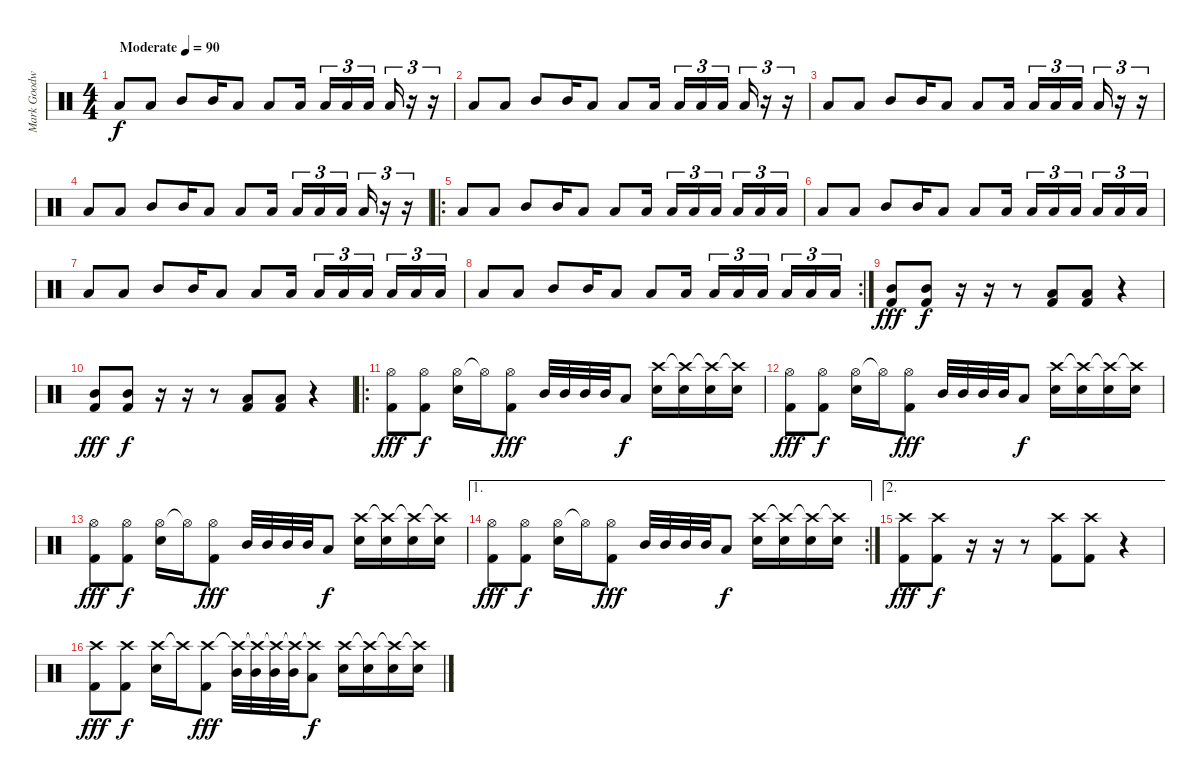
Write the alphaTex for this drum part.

\track ("Mark Goodwin" "Mark Goodw") {instrument percussion}
\staff {score}
\articulation defaults
\ts (4 4)
\tempo (90 "Moderate")
\clef neutral
\ks c "Low Floor Tom (hit)".8{dy f} "Low Floor Tom (hit)".8 "Mid Tom (hit)".8 "Mid Tom (hit)".16 "Low Floor Tom (hit)".8 "Low Floor Tom (hit)".8 "Low Tom (hit)".16 "Low Tom (hit)".16{tu (3 2)} "Low Tom (hit)".16{tu (3 2)} "Low Tom (hit)".16{tu (3 2) beam splitsecondary} "Low Tom (hit)".16{tu (3 2)}
r.16{tu (3 2)} r.16{tu (3 2)} |
"Low Floor Tom (hit)".8 "Low Floor Tom (hit)".8 "Mid Tom (hit)".8 "Mid Tom (hit)".16 "Low Floor Tom (hit)".8 "Low Floor Tom (hit)".8 "Low Tom (hit)".16 "Low Tom (hit)".16{tu (3 2)} "Low Tom (hit)".16{tu (3 2)} "Low Tom (hit)".16{tu (3 2) beam splitsecondary} "Low Tom (hit)".16{tu (3 2)} r.16{tu (3 2)} r.16{tu (3 2)} |
"Low Floor Tom (hit)".8 "Low Floor Tom (hit)".8 "Mid Tom (hit)".8 "Mid Tom (hit)".16 "Low Floor Tom (hit)".8 "Low Floor Tom (hit)".8 "Low Tom (hit)".16 "Low Tom (hit)".16{tu (3 2)} "Low Tom (hit)".16{tu (3 2)} "Low Tom (hit)".16{tu (3 2) beam splitsecondary} "Low Tom (hit)".16{tu (3 2)} r.16{tu (3 2)} r.16{tu (3 2)} |
"Low Floor Tom (hit)".8 "Low Floor Tom (hit)".8 "Mid Tom (hit)".8 "Mid Tom (hit)".16 "Low Floor Tom (hit)".8 "Low Floor Tom (hit)".8 "Low Tom (hit)".16 "Low Tom (hit)".16{tu (3 2)} "Low Tom (hit)".16{tu (3 2)} "Low Tom (hit)".16{tu (3 2) beam splitsecondary} "Low Tom (hit)".16{tu (3 2)} r.16{tu (3 2)} r.16{tu (3 2)} |
\ro "Low Floor Tom (hit)".8 "Low Floor Tom (hit)".8 "Mid Tom (hit)".8 "Mid Tom (hit)".16 "Low Floor Tom (hit)".8 "Low Floor Tom (hit)".8 "Low Tom (hit)".16 "Low Tom (hit)".16{tu (3 2)} "Low Tom (hit)".16{tu (3 2)} "Low Tom (hit)".16{tu (3 2) beam splitsecondary} "Low Tom (hit)".16{tu (3 2)} "Low Tom (hit)".16{tu (3 2)} "Low Tom (hit)".16{tu (3 2)}
|
"Low Floor Tom (hit)".8 "Low Floor Tom (hit)".8 "Mid Tom (hit)".8 "Mid Tom (hit)".16 "Low Floor Tom (hit)".8 "Low Floor Tom (hit)".8 "Low Tom (hit)".16 "Low Tom (hit)".16{tu (3 2)} "Low Tom (hit)".16{tu (3 2)} "Low Tom (hit)".16{tu (3 2) beam splitsecondary} "Low Tom (hit)".16{tu (3 2)} "Low Tom (hit)".16{tu (3 2)} "Low Tom (hit)".16{tu (3 2)} |
"Low Floor Tom (hit)".8 "Low Floor Tom (hit)".8 "Mid Tom (hit)".8 "Mid Tom (hit)".16 "Low Floor Tom (hit)".8 "Low Floor Tom (hit)".8 "Low Tom (hit)".16 "Low Tom (hit)".16{tu (3 2)} "Low Tom (hit)".16{tu (3 2)} "Low Tom (hit)".16{tu (3 2) beam splitsecondary} "Low Tom (hit)".16{tu (3 2)} "Low Tom (hit)".16{tu (3 2)} "Low Tom (hit)".16{tu (3 2)} |
\rc 2 "Low Floor Tom (hit)".8 "Low Floor Tom (hit)".8 "Mid Tom (hit)".8 "Mid Tom (hit)".16 "Low Floor Tom (hit)".8 "Low Floor Tom (hit)".8 "Low Tom (hit)".16 "Low Tom (hit)".16{tu (3 2)} "Low Tom (hit)".16{tu (3 2)} "Low Tom (hit)".16{tu (3 2) beam splitsecondary} "Low Tom (hit)".16{tu (3 2)} "Low Tom (hit)".16{tu (3 2)} "Low Tom (hit)".16{tu (3 2)}
|
("Mid Tom (hit)" "Kick (hit) 2").8{dy fff} ("Mid Tom (hit)" "Kick (hit) 2").8{dy f} r.16 r.16 r.8 ("Low Tom (hit)" "Kick (hit) 2").8 ("Low Tom (hit)" "Kick (hit) 2").8 r.4 |
("Mid Tom (hit)" "Kick (hit) 2").8{dy fff} ("Mid Tom (hit)" "Kick (hit) 2").8{dy f} r.16 r.16 r.8 ("Low Tom (hit)" "Kick (hit) 2").8 ("Low Tom (hit)" "Kick (hit) 2").8 r.4 |
\ro
("Hi-Hat (open)" "Kick (hit) 2").8{dy fff} ("Hi-Hat (open)" "Kick (hit) 2").8{dy f} ("Hi-Hat (open)" "Electric Snare (hit)").16 "Hi-Hat (open)"{t}.16 ("Hi-Hat (open)" "Kick (hit) 2").8{dy fff} "Mid Tom (hit)".32 "Mid Tom (hit)".32 "Mid Tom (hit)".32 "Mid Tom (hit)".32 "Low Floor Tom (hit)".8{dy f} ("Crash high (hit)" "Electric Snare (hit)").16 ("Crash high (hit)"{t} "Electric Snare (hit)").16 ("Crash high (hit)"{t} "Electric Snare (hit)").16 ("Crash high (hit)"{t} "Electric Snare (hit)").16 |
("Hi-Hat (open)" "Kick (hit) 2").8{dy fff} ("Hi-Hat (open)" "Kick (hit) 2").8{dy f} ("Hi-Hat (open)" "Electric Snare (hit)").16 "Hi-Hat (open)"{t}.16 ("Hi-Hat (open)" "Kick (hit) 2").8{dy fff} "Mid Tom (hit)".32 "Mid Tom (hit)".32 "Mid Tom (hit)".32 "Mid Tom (hit)".32 "Low Floor Tom (hit)".8{dy f} ("Crash high (hit)" "Electric Snare (hit)").16 ("Crash high (hit)"{t} "Electric Snare (hit)").16 ("Crash high (hit)"{t} "Electric Snare (hit)").16 ("Crash high (hit)"{t} "Electric Snare (hit)").16 |
("Hi-Hat (open)" "Kick (hit) 2").8{dy fff} ("Hi-Hat (open)" "Kick (hit) 2").8{dy f} ("Hi-Hat (open)" "Electric Snare (hit)").16 "Hi-Hat (open)"{t}.16 ("Hi-Hat (open)" "Kick (hit) 2").8{dy fff} "Mid Tom (hit)".32 "Mid Tom (hit)".32 "Mid Tom (hit)".32 "Mid Tom (hit)".32 "Low Floor Tom (hit)".8{dy f} ("Crash high (hit)" "Electric Snare (hit)").16 ("Crash high (hit)"{t} "Electric Snare (hit)").16 ("Crash high (hit)"{t} "Electric Snare (hit)").16 ("Crash high (hit)"{t} "Electric Snare (hit)").16 |
\ae 1
\rc 2
("Hi-Hat (open)" "Kick (hit) 2").8{dy fff} ("Hi-Hat (open)" "Kick (hit) 2").8{dy f} ("Hi-Hat (open)" "Electric Snare (hit)").16 "Hi-Hat (open)"{t}.16 ("Hi-Hat (open)" "Kick (hit) 2").8{dy fff} "Mid Tom (hit)".32 "Mid Tom (hit)".32 "Mid Tom (hit)".32 "Mid Tom (hit)".32 "Low Floor Tom (hit)".8{dy f} ("Crash high (hit)" "Electric Snare (hit)").16 ("Crash high (hit)"{t} "Electric Snare (hit)").16 ("Crash high (hit)"{t} "Electric Snare (hit)").16 ("Crash high (hit)"{t} "Electric Snare (hit)").16 |
\ae 2
("Crash high (hit)" "Kick (hit) 2").8{dy fff} ("Crash high (hit)" "Kick (hit) 2").8{dy f} r.16 r.16 r.8 ("Crash high (hit)" "Kick (hit) 2").8 ("Crash high (hit)" "Kick (hit) 2").8 r.4 |
("Crash high (hit)" "Kick (hit) 2").8{dy fff} ("Crash high (hit)" "Kick (hit) 2").8{dy f} ("Crash high (hit)" "Electric Snare (hit)").16 "Crash high (hit)"{t}.16 ("Crash high (hit)" "Kick (hit) 2").8{dy fff} ("Crash high (hit)"{t} "Mid Tom (hit)").32 ("Crash high (hit)"{t} "Mid Tom (hit)").32 ("Crash high (hit)"{t} "Mid Tom (hit)").32 ("Crash high (hit)"{t} "Mid Tom (hit)").32 ("Crash high (hit)"{t} "Low Floor Tom (hit)").8{dy f} ("Crash high (hit)" "Electric Snare (hit)").16 ("Crash high (hit)"{t} "Electric Snare (hit)").16 ("Crash high (hit)"{t} "Electric Snare (hit)").16 ("Crash high (hit)"{t} "Electric Snare (hit)").16
